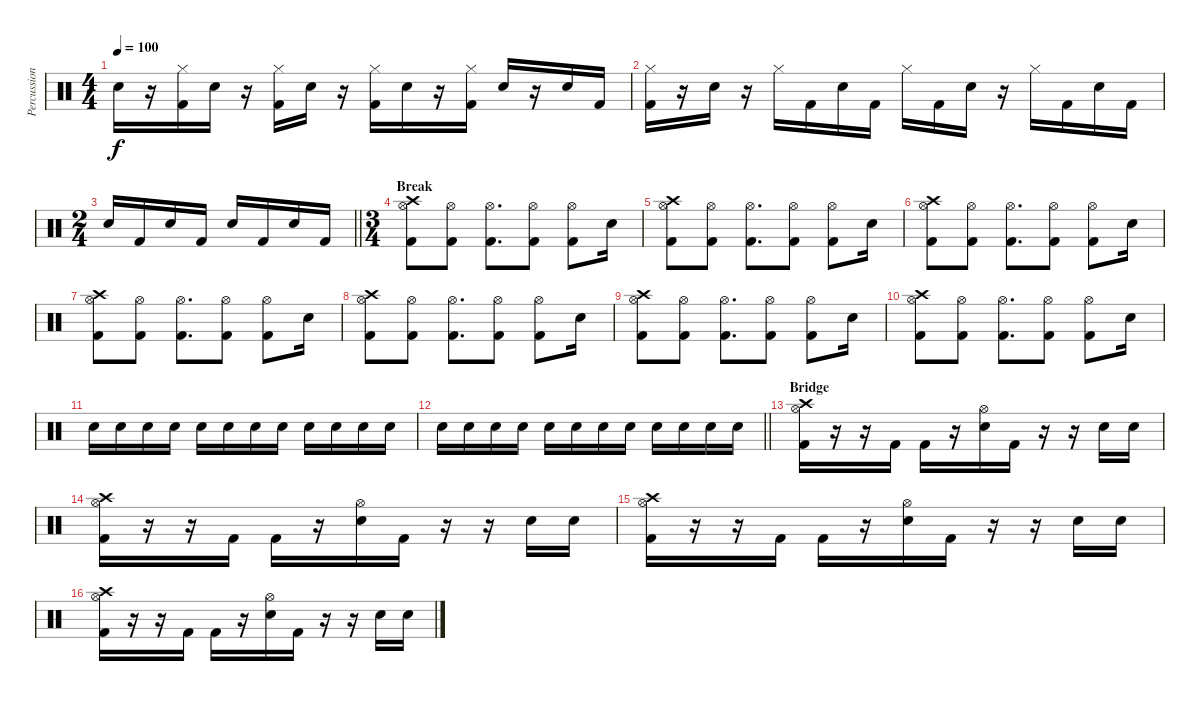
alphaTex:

\track ("Percussion" "Percussion") {instrument percussion}
\staff {score}
\articulation defaults
\ts (4 4)
\tempo 100
\clef neutral
\ks c "Snare (hit) 2".16{dy f}
r.16 ("Hi-Hat (closed)" "Kick (hit) 2").16 "Snare (hit) 2".16 r.16 ("Hi-Hat (closed)" "Kick (hit) 2").16 "Snare (hit) 2".16 r.16 ("Hi-Hat (closed)" "Kick (hit) 2").16 "Snare (hit) 2".16 r.16 ("Hi-Hat (closed)" "Kick (hit) 2").16 "Snare (hit) 2".16 r.16 "Snare (hit) 2".16 "Kick (hit) 2".16 |
("Hi-Hat (closed)" "Kick (hit) 2").16 r.16 "Snare (hit) 2".16 r.16 "Hi-Hat (closed)".16 "Kick (hit) 2".16 "Snare (hit) 2".16 "Kick (hit) 2".16 "Hi-Hat (closed)".16 "Kick (hit) 2".16 "Snare (hit) 2".16 r.16 "Hi-Hat (closed)".16 "Kick (hit) 2".16 "Snare (hit) 2".16 "Kick (hit) 2".16 |
\ts (2 4)
\barLineRight lightlight "Snare (hit) 2".16 "Kick (hit) 2".16 "Snare (hit) 2".16 "Kick (hit) 2".16 "Snare (hit) 2".16 "Kick (hit) 2".16 "Snare (hit) 2".16 "Kick (hit) 2".16
|
\ts (3 4)
\section ("" "Break")
("Crash high (hit)" "Hi-Hat (open)" "Kick (hit) 2").8 ("Hi-Hat (open)" "Kick (hit) 2").8 ("Hi-Hat (open)" "Kick (hit) 2").8{d} ("Hi-Hat (open)" "Kick (hit) 2").8 ("Hi-Hat (open)" "Kick (hit) 2").8 "Snare (hit) 2".16 |
("Crash high (hit)" "Hi-Hat (open)" "Kick (hit) 2").8 ("Hi-Hat (open)" "Kick (hit) 2").8 ("Hi-Hat (open)" "Kick (hit) 2").8{d} ("Hi-Hat (open)" "Kick (hit) 2").8 ("Hi-Hat (open)" "Kick (hit) 2").8 "Snare (hit) 2".16 |
("Crash high (hit)" "Hi-Hat (open)" "Kick (hit) 2").8 ("Hi-Hat (open)" "Kick (hit) 2").8 ("Hi-Hat (open)" "Kick (hit) 2").8{d} ("Hi-Hat (open)" "Kick (hit) 2").8 ("Hi-Hat (open)" "Kick (hit) 2").8 "Snare (hit) 2".16 |
("Crash high (hit)" "Hi-Hat (open)" "Kick (hit) 2").8 ("Hi-Hat (open)" "Kick (hit) 2").8 ("Hi-Hat (open)" "Kick (hit) 2").8{d} ("Hi-Hat (open)" "Kick (hit) 2").8 ("Hi-Hat (open)" "Kick (hit) 2").8 "Snare (hit) 2".16 |
("Crash high (hit)" "Hi-Hat (open)" "Kick (hit) 2").8 ("Hi-Hat (open)" "Kick (hit) 2").8 ("Hi-Hat (open)" "Kick (hit) 2").8{d} ("Hi-Hat (open)" "Kick (hit) 2").8 ("Hi-Hat (open)" "Kick (hit) 2").8 "Snare (hit) 2".16 |
("Crash high (hit)" "Hi-Hat (open)" "Kick (hit) 2").8 ("Hi-Hat (open)" "Kick (hit) 2").8 ("Hi-Hat (open)" "Kick (hit) 2").8{d} ("Hi-Hat (open)" "Kick (hit) 2").8 ("Hi-Hat (open)" "Kick (hit) 2").8 "Snare (hit) 2".16 |
("Crash high (hit)" "Hi-Hat (open)" "Kick (hit) 2").8 ("Hi-Hat (open)" "Kick (hit) 2").8 ("Hi-Hat (open)" "Kick (hit) 2").8{d} ("Hi-Hat (open)" "Kick (hit) 2").8 ("Hi-Hat (open)" "Kick (hit) 2").8 "Snare (hit) 2".16 |
"Snare (hit) 2".16 "Snare (hit) 2".16 "Snare (hit) 2".16 "Snare (hit) 2".16 "Snare (hit) 2".16 "Snare (hit) 2".16 "Snare (hit) 2".16 "Snare (hit) 2".16 "Snare (hit) 2".16 "Snare (hit) 2".16 "Snare (hit) 2".16 "Snare (hit) 2".16 |
\barLineRight lightlight "Snare (hit) 2".16 "Snare (hit) 2".16 "Snare (hit) 2".16 "Snare (hit) 2".16 "Snare (hit) 2".16 "Snare (hit) 2".16 "Snare (hit) 2".16 "Snare (hit) 2".16 "Snare (hit) 2".16 "Snare (hit) 2".16 "Snare (hit) 2".16 "Snare (hit) 2".16
|
\section ("" "Bridge")
("Crash high (hit)" "Hi-Hat (open)" "Kick (hit) 2").16 r.16 r.16 "Kick (hit) 2".16 "Kick (hit) 2".16 r.16 ("Hi-Hat (open)" "Snare (hit) 2").16 "Kick (hit) 2".16 r.16 r.16 "Snare (hit) 2".16 "Snare (hit) 2".16 |
("Crash high (hit)" "Hi-Hat (open)" "Kick (hit) 2").16 r.16 r.16 "Kick (hit) 2".16 "Kick (hit) 2".16 r.16 ("Hi-Hat (open)" "Snare (hit) 2").16 "Kick (hit) 2".16 r.16 r.16 "Snare (hit) 2".16 "Snare (hit) 2".16 |
("Crash high (hit)" "Hi-Hat (open)" "Kick (hit) 2").16 r.16 r.16 "Kick (hit) 2".16 "Kick (hit) 2".16 r.16 ("Hi-Hat (open)" "Snare (hit) 2").16 "Kick (hit) 2".16 r.16 r.16 "Snare (hit) 2".16 "Snare (hit) 2".16 |
("Crash high (hit)" "Hi-Hat (open)" "Kick (hit) 2").16 r.16 r.16 "Kick (hit) 2".16 "Kick (hit) 2".16 r.16 ("Hi-Hat (open)" "Snare (hit) 2").16 "Kick (hit) 2".16 r.16 r.16 "Snare (hit) 2".16 "Snare (hit) 2".16
